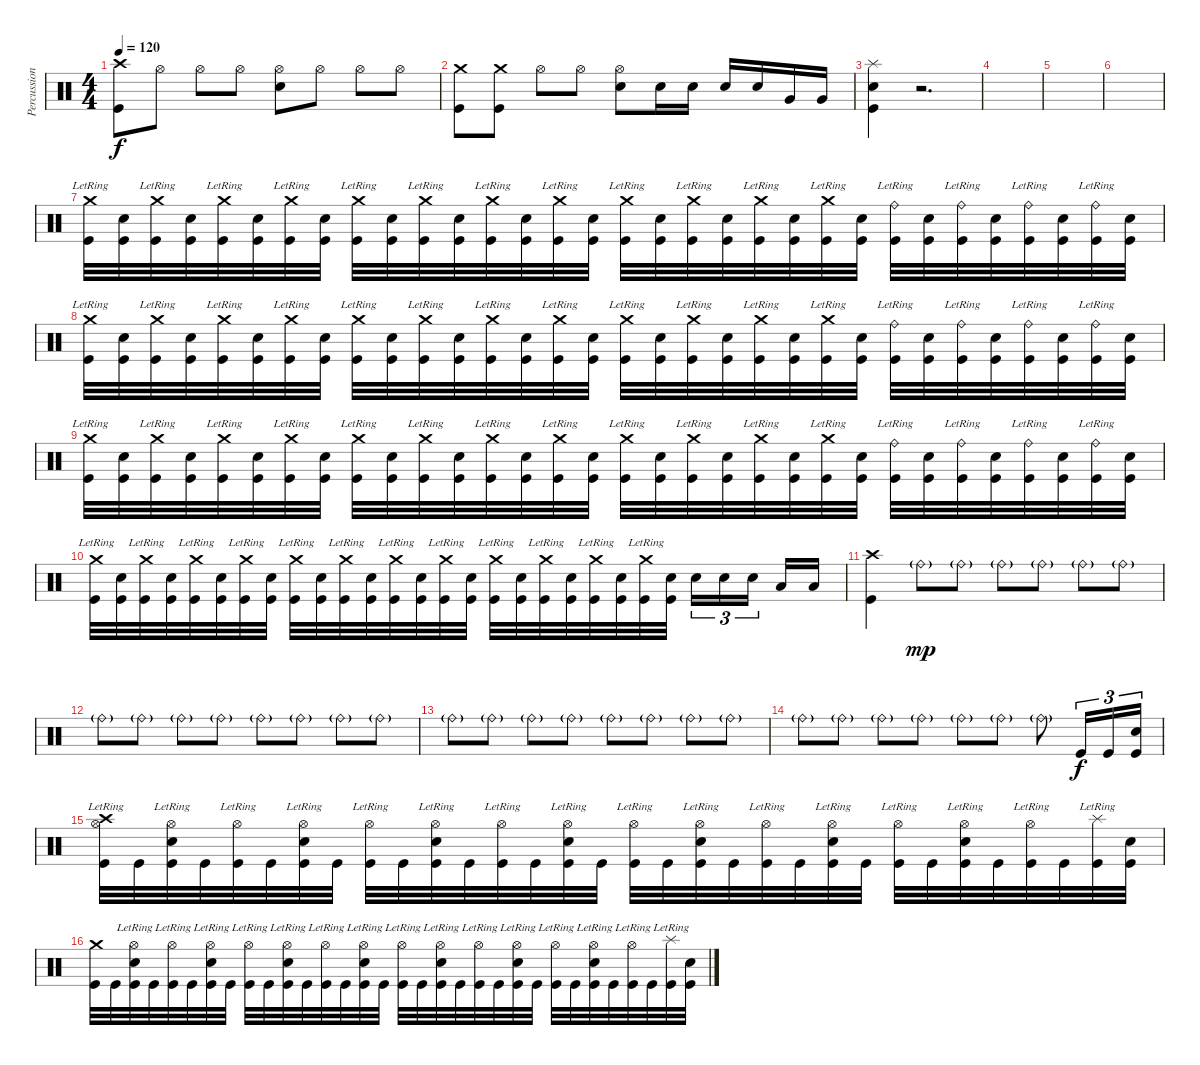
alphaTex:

\track ("Percussion" "Percussion") {instrument percussion}
\staff {score}
\articulation defaults
\ts (4 4)
\tempo 120
\clef neutral
\ks c
("Kick (hit)" "Crash high (hit)").8{dy f} "Hi-Hat (open)".8 "Hi-Hat (open)".8 "Hi-Hat (open)".8 ("Hi-Hat (open)" "Snare (hit) 2").8 "Hi-Hat (open)".8 "Hi-Hat (open)".8 "Hi-Hat (open)".8 |
("Kick (hit)" "Crash medium (hit)").8 ("Kick (hit)" "Crash medium (hit)").8 "Hi-Hat (open)".8 "Hi-Hat (open)".8 ("Hi-Hat (open)" "Snare (hit) 2").8 "Snare (hit) 2".16 "Snare (hit) 2".16 "Snare (hit) 2".16 "Snare (hit) 2".16 "Very Low Tom (hit)".16 "Very Low Tom (hit)".16 |
("Splash (hit)" "Snare (hit) 2" "Kick (hit)").4 r.2{d} |
|
|
|
("Crash medium (hit)"{lr} "Kick (hit)").32 ("Snare (hit) 2" "Kick (hit)").32 ("Crash medium (hit)"{lr} "Kick (hit)").32 ("Snare (hit) 2" "Kick (hit)").32 ("Crash medium (hit)"{lr} "Kick (hit)").32 ("Snare (hit) 2" "Kick (hit)").32 ("Crash medium (hit)"{lr} "Kick (hit)").32 ("Snare (hit) 2" "Kick (hit)").32 ("Crash medium (hit)"{lr} "Kick (hit)").32 ("Snare (hit) 2" "Kick (hit)").32 ("Crash medium (hit)"{lr} "Kick (hit)").32 ("Snare (hit) 2" "Kick (hit)").32 ("Crash medium (hit)"{lr} "Kick (hit)").32 ("Snare (hit) 2" "Kick (hit)").32 ("Crash medium (hit)"{lr} "Kick (hit)").32 ("Snare (hit) 2" "Kick (hit)").32 ("Crash medium (hit)"{lr} "Kick (hit)").32 ("Snare (hit) 2" "Kick (hit)").32 ("Crash medium (hit)"{lr} "Kick (hit)").32 ("Snare (hit) 2" "Kick (hit)").32 ("Crash medium (hit)"{lr} "Kick (hit)").32 ("Snare (hit) 2" "Kick (hit)").32 ("Crash medium (hit)"{lr} "Kick (hit)").32 ("Snare (hit) 2" "Kick (hit)").32 ("Ride (bell)"{lr} "Kick (hit)").32 ("Snare (hit) 2" "Kick (hit)").32 ("Ride (bell)"{lr} "Kick (hit)").32 ("Snare (hit) 2" "Kick (hit)").32 ("Ride (bell)"{lr} "Kick (hit)").32 ("Snare (hit) 2" "Kick (hit)").32 ("Ride (bell)"{lr} "Kick (hit)").32 ("Snare (hit) 2" "Kick (hit)").32 |
("Crash medium (hit)"{lr} "Kick (hit)").32 ("Snare (hit) 2" "Kick (hit)").32 ("Crash medium (hit)"{lr} "Kick (hit)").32 ("Snare (hit) 2" "Kick (hit)").32 ("Crash medium (hit)"{lr} "Kick (hit)").32 ("Snare (hit) 2" "Kick (hit)").32 ("Crash medium (hit)"{lr} "Kick (hit)").32 ("Snare (hit) 2" "Kick (hit)").32 ("Crash medium (hit)"{lr} "Kick (hit)").32 ("Snare (hit) 2" "Kick (hit)").32 ("Crash medium (hit)"{lr} "Kick (hit)").32 ("Snare (hit) 2" "Kick (hit)").32 ("Crash medium (hit)"{lr} "Kick (hit)").32 ("Snare (hit) 2" "Kick (hit)").32 ("Crash medium (hit)"{lr} "Kick (hit)").32 ("Snare (hit) 2" "Kick (hit)").32 ("Crash medium (hit)"{lr} "Kick (hit)").32 ("Snare (hit) 2" "Kick (hit)").32 ("Crash medium (hit)"{lr} "Kick (hit)").32 ("Snare (hit) 2" "Kick (hit)").32 ("Crash medium (hit)"{lr} "Kick (hit)").32 ("Snare (hit) 2" "Kick (hit)").32 ("Crash medium (hit)"{lr} "Kick (hit)").32 ("Snare (hit) 2" "Kick (hit)").32 ("Ride (bell)"{lr} "Kick (hit)").32 ("Snare (hit) 2" "Kick (hit)").32 ("Ride (bell)"{lr} "Kick (hit)").32 ("Snare (hit) 2" "Kick (hit)").32 ("Ride (bell)"{lr} "Kick (hit)").32 ("Snare (hit) 2" "Kick (hit)").32 ("Ride (bell)"{lr} "Kick (hit)").32 ("Snare (hit) 2" "Kick (hit)").32 |
("Crash medium (hit)"{lr} "Kick (hit)").32 ("Snare (hit) 2" "Kick (hit)").32 ("Crash medium (hit)"{lr} "Kick (hit)").32 ("Snare (hit) 2" "Kick (hit)").32 ("Crash medium (hit)"{lr} "Kick (hit)").32 ("Snare (hit) 2" "Kick (hit)").32 ("Crash medium (hit)"{lr} "Kick (hit)").32 ("Snare (hit) 2" "Kick (hit)").32 ("Crash medium (hit)"{lr} "Kick (hit)").32 ("Snare (hit) 2" "Kick (hit)").32 ("Crash medium (hit)"{lr} "Kick (hit)").32 ("Snare (hit) 2" "Kick (hit)").32 ("Crash medium (hit)"{lr} "Kick (hit)").32 ("Snare (hit) 2" "Kick (hit)").32 ("Crash medium (hit)"{lr} "Kick (hit)").32 ("Snare (hit) 2" "Kick (hit)").32 ("Crash medium (hit)"{lr} "Kick (hit)").32 ("Snare (hit) 2" "Kick (hit)").32 ("Crash medium (hit)"{lr} "Kick (hit)").32 ("Snare (hit) 2" "Kick (hit)").32 ("Crash medium (hit)"{lr} "Kick (hit)").32 ("Snare (hit) 2" "Kick (hit)").32 ("Crash medium (hit)"{lr} "Kick (hit)").32 ("Snare (hit) 2" "Kick (hit)").32 ("Ride (bell)"{lr} "Kick (hit)").32 ("Snare (hit) 2" "Kick (hit)").32 ("Ride (bell)"{lr} "Kick (hit)").32 ("Snare (hit) 2" "Kick (hit)").32 ("Ride (bell)"{lr} "Kick (hit)").32 ("Snare (hit) 2" "Kick (hit)").32 ("Ride (bell)"{lr} "Kick (hit)").32 ("Snare (hit) 2" "Kick (hit)").32 |
("Crash medium (hit)"{lr} "Kick (hit)").32 ("Snare (hit) 2" "Kick (hit)").32 ("Crash medium (hit)"{lr} "Kick (hit)").32 ("Snare (hit) 2" "Kick (hit)").32 ("Crash medium (hit)"{lr} "Kick (hit)").32 ("Snare (hit) 2" "Kick (hit)").32 ("Crash medium (hit)"{lr} "Kick (hit)").32 ("Snare (hit) 2" "Kick (hit)").32 ("Crash medium (hit)"{lr} "Kick (hit)").32 ("Snare (hit) 2" "Kick (hit)").32 ("Crash medium (hit)"{lr} "Kick (hit)").32 ("Snare (hit) 2" "Kick (hit)").32 ("Crash medium (hit)"{lr} "Kick (hit)").32 ("Snare (hit) 2" "Kick (hit)").32 ("Crash medium (hit)"{lr} "Kick (hit)").32 ("Snare (hit) 2" "Kick (hit)").32 ("Crash medium (hit)"{lr} "Kick (hit)").32 ("Snare (hit) 2" "Kick (hit)").32 ("Crash medium (hit)"{lr} "Kick (hit)").32 ("Snare (hit) 2" "Kick (hit)").32 ("Crash medium (hit)"{lr} "Kick (hit)").32 ("Snare (hit) 2" "Kick (hit)").32 ("Crash medium (hit)"{lr} "Kick (hit)").32 ("Snare (hit) 2" "Kick (hit)").32 "Snare (hit) 2".16{tu (3 2)} "Snare (hit) 2".16{tu (3 2)} "Snare (hit) 2".16{tu (3 2)} "Low Floor Tom (hit)".16 "Low Floor Tom (hit)".16 |
("Kick (hit)" "Crash high (hit)").4 "Ride (bell)"{g}.8{dy mp} "Ride (bell)"{g}.8 "Ride (bell)"{g}.8 "Ride (bell)"{g}.8 "Ride (bell)"{g}.8 "Ride (bell)"{g}.8 |
"Ride (bell)"{g}.8 "Ride (bell)"{g}.8 "Ride (bell)"{g}.8 "Ride (bell)"{g}.8 "Ride (bell)"{g}.8 "Ride (bell)"{g}.8 "Ride (bell)"{g}.8 "Ride (bell)"{g}.8 |
"Ride (bell)"{g}.8 "Ride (bell)"{g}.8 "Ride (bell)"{g}.8 "Ride (bell)"{g}.8 "Ride (bell)"{g}.8 "Ride (bell)"{g}.8 "Ride (bell)"{g}.8 "Ride (bell)"{g}.8 |
"Ride (bell)"{g}.8 "Ride (bell)"{g}.8 "Ride (bell)"{g}.8 "Ride (bell)"{g}.8 "Ride (bell)"{g}.8 "Ride (bell)"{g}.8 "Ride (bell)"{g}.8 "Kick (hit)".16{tu (3 2) dy f} "Kick (hit)".16{tu (3 2)} ("Kick (hit)" "Snare (hit) 2").16{tu (3 2)} |
("Crash high (hit)" "Hi-Hat (open)"{lr} "Kick (hit)").32 "Kick (hit)".32 ("Hi-Hat (open)"{lr} "Snare (hit) 2" "Kick (hit)").32 "Kick (hit)".32 ("Hi-Hat (open)"{lr} "Kick (hit)").32 "Kick (hit)".32 ("Hi-Hat (open)"{lr} "Snare (hit) 2" "Kick (hit)").32 "Kick (hit)".32 ("Hi-Hat (open)"{lr} "Kick (hit)").32 "Kick (hit)".32 ("Hi-Hat (open)"{lr} "Snare (hit) 2" "Kick (hit)").32 "Kick (hit)".32 ("Hi-Hat (open)"{lr} "Kick (hit)").32 "Kick (hit)".32 ("Hi-Hat (open)"{lr} "Snare (hit) 2" "Kick (hit)").32 "Kick (hit)".32 ("Hi-Hat (open)"{lr} "Kick (hit)").32 "Kick (hit)".32 ("Hi-Hat (open)"{lr} "Snare (hit) 2" "Kick (hit)").32 "Kick (hit)".32 ("Hi-Hat (open)"{lr} "Kick (hit)").32 "Kick (hit)".32 ("Hi-Hat (open)"{lr} "Snare (hit) 2" "Kick (hit)").32 "Kick (hit)".32 ("Hi-Hat (open)"{lr} "Kick (hit)").32 "Kick (hit)".32 ("Hi-Hat (open)"{lr} "Snare (hit) 2" "Kick (hit)").32 "Kick (hit)".32 ("Hi-Hat (open)"{lr} "Kick (hit)").32 "Kick (hit)".32 ("Splash (hit)"{lr} "Kick (hit)").32 ("Snare (hit) 2" "Kick (hit)").32 |
("Crash medium (hit)" "Kick (hit)").32 "Kick (hit)".32 ("Hi-Hat (open)"{lr} "Snare (hit) 2" "Kick (hit)").32 "Kick (hit)".32 ("Hi-Hat (open)"{lr} "Kick (hit)").32 "Kick (hit)".32 ("Hi-Hat (open)"{lr} "Snare (hit) 2" "Kick (hit)").32 "Kick (hit)".32 ("Hi-Hat (open)"{lr} "Kick (hit)").32 "Kick (hit)".32 ("Hi-Hat (open)"{lr} "Snare (hit) 2" "Kick (hit)").32 "Kick (hit)".32 ("Hi-Hat (open)"{lr} "Kick (hit)").32 "Kick (hit)".32 ("Hi-Hat (open)"{lr} "Snare (hit) 2" "Kick (hit)").32 "Kick (hit)".32 ("Hi-Hat (open)"{lr} "Kick (hit)").32 "Kick (hit)".32 ("Hi-Hat (open)"{lr} "Snare (hit) 2" "Kick (hit)").32 "Kick (hit)".32 ("Hi-Hat (open)"{lr} "Kick (hit)").32 "Kick (hit)".32 ("Hi-Hat (open)"{lr} "Snare (hit) 2" "Kick (hit)").32 "Kick (hit)".32 ("Hi-Hat (open)"{lr} "Kick (hit)").32 "Kick (hit)".32 ("Hi-Hat (open)"{lr} "Snare (hit) 2" "Kick (hit)").32 "Kick (hit)".32 ("Hi-Hat (open)"{lr} "Kick (hit)").32 "Kick (hit)".32 ("Splash (hit)"{lr} "Kick (hit)").32 ("Snare (hit) 2" "Kick (hit)").32
